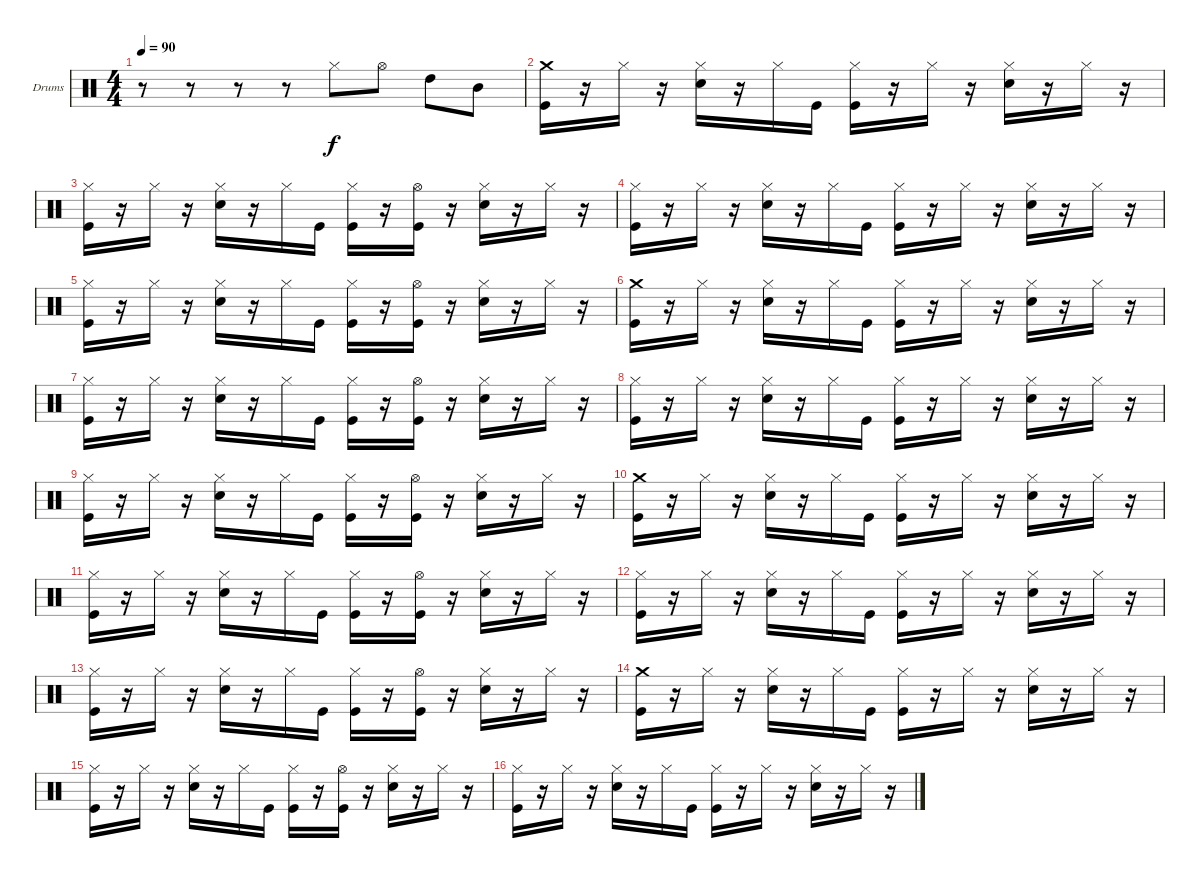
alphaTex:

\defaultSystemsLayout 4
\bracketExtendMode groupsimilarinstruments
\firstSystemTrackNameOrientation horizontal
\otherSystemsTrackNameOrientation horizontal
\track ("Percucion" "Drums") {instrument percussion}
\staff {score}
\articulation defaults
\ts (4 4)
\tempo 90
\clef neutral
\scale
0.333333
\ks c
r.8{dy mf} r.8 r.8 r.8 "Hi-Hat (closed)".8{dy f} "Hi-Hat (open)".8 "High Tom (hit)".8 "Mid Tom (hit)".8 |
\scale
0.333333 ("Crash medium (hit)" "Kick (hit)").16 r.16 "Hi-Hat (closed)".16 r.16 ("Hi-Hat (closed)" "Snare (hit) 2").16 r.16 "Hi-Hat (closed)".16 "Kick (hit)".16 ("Hi-Hat (closed)" "Kick (hit)").16 r.16 "Hi-Hat (closed)".16 r.16 ("Hi-Hat (closed)" "Snare (hit) 2").16 r.16 "Hi-Hat (closed)".16 r.16 |
\scale
0.333333 ("Hi-Hat (closed)" "Kick (hit)").16 r.16 "Hi-Hat (closed)".16 r.16 ("Hi-Hat (closed)" "Snare (hit) 2").16 r.16 "Hi-Hat (closed)".16 "Kick (hit)".16 ("Hi-Hat (closed)" "Kick (hit)").16 r.16 ("Hi-Hat (open)" "Kick (hit)").16 r.16 ("Hi-Hat (closed)" "Snare (hit) 2").16 r.16 "Hi-Hat (closed)".16 r.16 |
\scale
0.333333 ("Hi-Hat (closed)" "Kick (hit)").16 r.16 "Hi-Hat (closed)".16 r.16 ("Hi-Hat (closed)" "Snare (hit) 2").16 r.16 "Hi-Hat (closed)".16 "Kick (hit)".16 ("Hi-Hat (closed)" "Kick (hit)").16 r.16 "Hi-Hat (closed)".16 r.16 ("Hi-Hat (closed)" "Snare (hit) 2").16 r.16 "Hi-Hat (closed)".16 r.16 |
\scale
0.333333 ("Hi-Hat (closed)" "Kick (hit)").16 r.16 "Hi-Hat (closed)".16 r.16 ("Hi-Hat (closed)" "Snare (hit) 2").16 r.16 "Hi-Hat (closed)".16 "Kick (hit)".16 ("Hi-Hat (closed)" "Kick (hit)").16 r.16 ("Hi-Hat (open)" "Kick (hit)").16 r.16 ("Hi-Hat (closed)" "Snare (hit) 2").16 r.16 "Hi-Hat (closed)".16 r.16 |
\scale
0.333333 ("Crash medium (hit)" "Kick (hit)").16 r.16 "Hi-Hat (closed)".16 r.16 ("Hi-Hat (closed)" "Snare (hit) 2").16 r.16 "Hi-Hat (closed)".16 "Kick (hit)".16 ("Hi-Hat (closed)" "Kick (hit)").16 r.16 "Hi-Hat (closed)".16 r.16 ("Hi-Hat (closed)" "Snare (hit) 2").16 r.16 "Hi-Hat (closed)".16 r.16 |
\scale
0.333333 ("Hi-Hat (closed)" "Kick (hit)").16 r.16 "Hi-Hat (closed)".16 r.16 ("Hi-Hat (closed)" "Snare (hit) 2").16 r.16 "Hi-Hat (closed)".16 "Kick (hit)".16 ("Hi-Hat (closed)" "Kick (hit)").16 r.16 ("Hi-Hat (open)" "Kick (hit)").16 r.16 ("Hi-Hat (closed)" "Snare (hit) 2").16 r.16 "Hi-Hat (closed)".16 r.16 |
\scale
0.333333 ("Hi-Hat (closed)" "Kick (hit)").16 r.16 "Hi-Hat (closed)".16 r.16 ("Hi-Hat (closed)" "Snare (hit) 2").16 r.16 "Hi-Hat (closed)".16 "Kick (hit)".16 ("Hi-Hat (closed)" "Kick (hit)").16 r.16 "Hi-Hat (closed)".16 r.16 ("Hi-Hat (closed)" "Snare (hit) 2").16 r.16 "Hi-Hat (closed)".16 r.16 |
\scale
0.333333 ("Hi-Hat (closed)" "Kick (hit)").16 r.16 "Hi-Hat (closed)".16 r.16 ("Hi-Hat (closed)" "Snare (hit) 2").16 r.16 "Hi-Hat (closed)".16 "Kick (hit)".16 ("Hi-Hat (closed)" "Kick (hit)").16 r.16 ("Hi-Hat (open)" "Kick (hit)").16 r.16 ("Hi-Hat (closed)" "Snare (hit) 2").16 r.16 "Hi-Hat (closed)".16 r.16 |
\scale
0.333333 ("Crash medium (hit)" "Kick (hit)").16 r.16 "Hi-Hat (closed)".16 r.16 ("Hi-Hat (closed)" "Snare (hit) 2").16 r.16 "Hi-Hat (closed)".16 "Kick (hit)".16 ("Hi-Hat (closed)" "Kick (hit)").16 r.16 "Hi-Hat (closed)".16 r.16 ("Hi-Hat (closed)" "Snare (hit) 2").16 r.16 "Hi-Hat (closed)".16 r.16 |
\scale
0.333333 ("Hi-Hat (closed)" "Kick (hit)").16 r.16 "Hi-Hat (closed)".16 r.16 ("Hi-Hat (closed)" "Snare (hit) 2").16 r.16 "Hi-Hat (closed)".16 "Kick (hit)".16 ("Hi-Hat (closed)" "Kick (hit)").16 r.16 ("Hi-Hat (open)" "Kick (hit)").16 r.16 ("Hi-Hat (closed)" "Snare (hit) 2").16 r.16 "Hi-Hat (closed)".16 r.16 |
\scale
0.333333 ("Hi-Hat (closed)" "Kick (hit)").16 r.16 "Hi-Hat (closed)".16 r.16 ("Hi-Hat (closed)" "Snare (hit) 2").16 r.16 "Hi-Hat (closed)".16 "Kick (hit)".16 ("Hi-Hat (closed)" "Kick (hit)").16 r.16 "Hi-Hat (closed)".16 r.16 ("Hi-Hat (closed)" "Snare (hit) 2").16 r.16 "Hi-Hat (closed)".16 r.16 |
\scale
0.333333 ("Hi-Hat (closed)" "Kick (hit)").16 r.16 "Hi-Hat (closed)".16 r.16 ("Hi-Hat (closed)" "Snare (hit) 2").16 r.16 "Hi-Hat (closed)".16 "Kick (hit)".16 ("Hi-Hat (closed)" "Kick (hit)").16 r.16 ("Hi-Hat (open)" "Kick (hit)").16 r.16 ("Hi-Hat (closed)" "Snare (hit) 2").16 r.16 "Hi-Hat (closed)".16 r.16 |
\scale
0.333333 ("Crash medium (hit)" "Kick (hit)").16 r.16 "Hi-Hat (closed)".16 r.16 ("Hi-Hat (closed)" "Snare (hit) 2").16 r.16 "Hi-Hat (closed)".16 "Kick (hit)".16 ("Hi-Hat (closed)" "Kick (hit)").16 r.16 "Hi-Hat (closed)".16 r.16 ("Hi-Hat (closed)" "Snare (hit) 2").16 r.16 "Hi-Hat (closed)".16 r.16 |
\scale
0.333333 ("Hi-Hat (closed)" "Kick (hit)").16 r.16 "Hi-Hat (closed)".16 r.16 ("Hi-Hat (closed)" "Snare (hit) 2").16 r.16 "Hi-Hat (closed)".16 "Kick (hit)".16 ("Hi-Hat (closed)" "Kick (hit)").16 r.16 ("Hi-Hat (open)" "Kick (hit)").16 r.16 ("Hi-Hat (closed)" "Snare (hit) 2").16 r.16 "Hi-Hat (closed)".16 r.16 |
\scale
0.333333 ("Hi-Hat (closed)" "Kick (hit)").16 r.16 "Hi-Hat (closed)".16 r.16 ("Hi-Hat (closed)" "Snare (hit) 2").16 r.16 "Hi-Hat (closed)".16 "Kick (hit)".16 ("Hi-Hat (closed)" "Kick (hit)").16 r.16 "Hi-Hat (closed)".16 r.16 ("Hi-Hat (closed)" "Snare (hit) 2").16 r.16 "Hi-Hat (closed)".16 r.16
